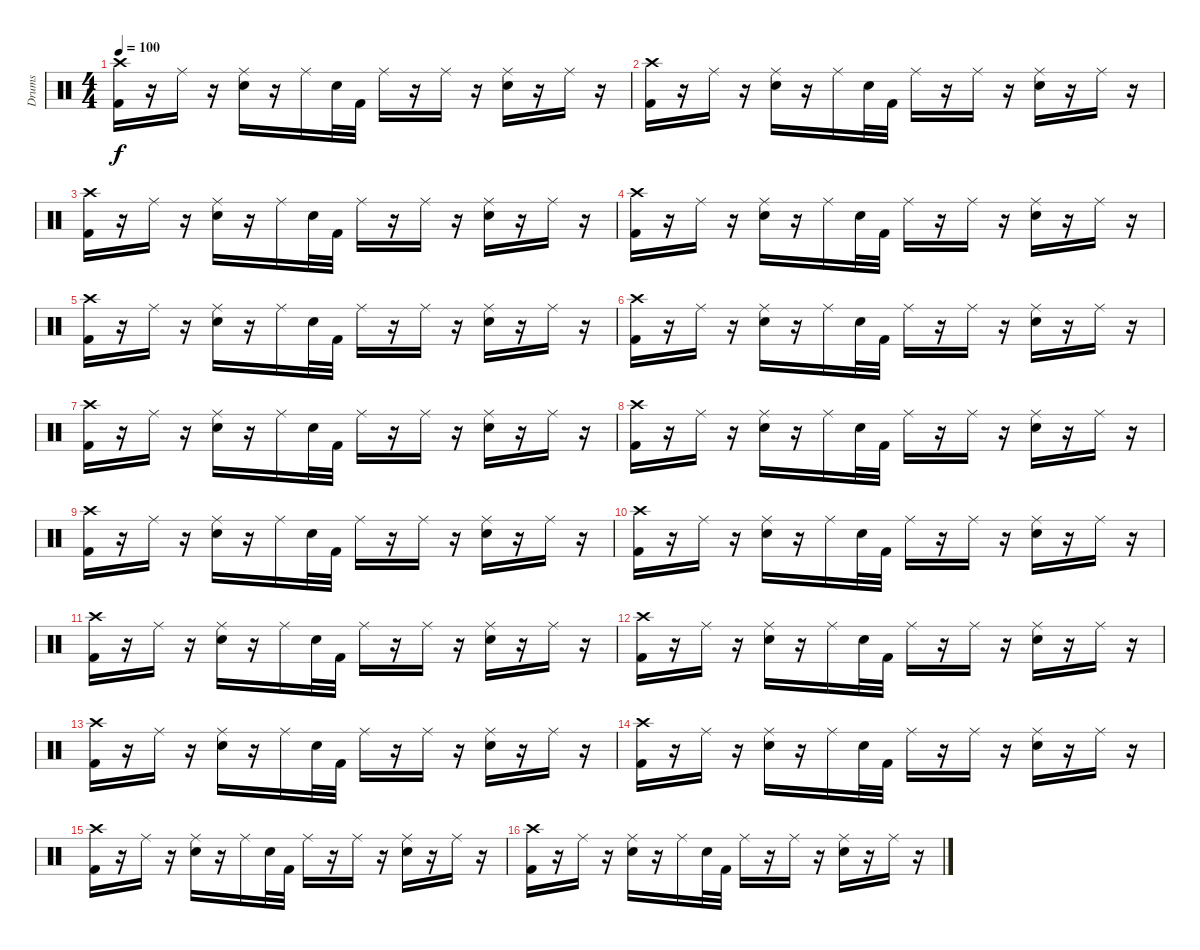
\track ("Drums" "Drums") {instrument percussion}
\staff {score}
\articulation defaults
\ts (4 4)
\tempo 100
\clef neutral
\ks c
("Crash high (hit)" "Kick (hit) 2").16{dy f} r.16 "Ride (middle)".16 r.16 ("Ride (middle)" "Snare (hit) 2").16 r.16 "Ride (middle)".16 "Snare (hit) 2".32 "Kick (hit) 2".32 "Ride (middle)".16 r.16 "Ride (middle)".16 r.16 ("Ride (middle)" "Snare (hit) 2").16 r.16 "Ride (middle)".16 r.16 |
("Crash high (hit)" "Kick (hit) 2").16 r.16 "Ride (middle)".16 r.16 ("Ride (middle)" "Snare (hit) 2").16 r.16 "Ride (middle)".16 "Snare (hit) 2".32 "Kick (hit) 2".32 "Ride (middle)".16 r.16 "Ride (middle)".16 r.16 ("Ride (middle)" "Snare (hit) 2").16 r.16 "Ride (middle)".16 r.16 |
("Crash high (hit)" "Kick (hit) 2").16 r.16 "Ride (middle)".16 r.16 ("Ride (middle)" "Snare (hit) 2").16 r.16 "Ride (middle)".16 "Snare (hit) 2".32 "Kick (hit) 2".32 "Ride (middle)".16 r.16 "Ride (middle)".16 r.16 ("Ride (middle)" "Snare (hit) 2").16 r.16 "Ride (middle)".16 r.16 |
("Crash high (hit)" "Kick (hit) 2").16 r.16 "Ride (middle)".16 r.16 ("Ride (middle)" "Snare (hit) 2").16 r.16 "Ride (middle)".16 "Snare (hit) 2".32 "Kick (hit) 2".32 "Ride (middle)".16 r.16 "Ride (middle)".16 r.16 ("Ride (middle)" "Snare (hit) 2").16 r.16 "Ride (middle)".16 r.16 |
("Crash high (hit)" "Kick (hit) 2").16 r.16 "Ride (middle)".16 r.16 ("Ride (middle)" "Snare (hit) 2").16 r.16 "Ride (middle)".16 "Snare (hit) 2".32 "Kick (hit) 2".32 "Ride (middle)".16 r.16 "Ride (middle)".16 r.16 ("Ride (middle)" "Snare (hit) 2").16 r.16 "Ride (middle)".16 r.16 |
("Crash high (hit)" "Kick (hit) 2").16 r.16 "Ride (middle)".16 r.16 ("Ride (middle)" "Snare (hit) 2").16 r.16 "Ride (middle)".16 "Snare (hit) 2".32 "Kick (hit) 2".32 "Ride (middle)".16 r.16 "Ride (middle)".16 r.16 ("Ride (middle)" "Snare (hit) 2").16 r.16 "Ride (middle)".16 r.16 |
("Crash high (hit)" "Kick (hit) 2").16 r.16 "Ride (middle)".16 r.16 ("Ride (middle)" "Snare (hit) 2").16 r.16 "Ride (middle)".16 "Snare (hit) 2".32 "Kick (hit) 2".32 "Ride (middle)".16 r.16 "Ride (middle)".16 r.16 ("Ride (middle)" "Snare (hit) 2").16 r.16 "Ride (middle)".16 r.16 |
("Crash high (hit)" "Kick (hit) 2").16 r.16 "Ride (middle)".16 r.16 ("Ride (middle)" "Snare (hit) 2").16 r.16 "Ride (middle)".16 "Snare (hit) 2".32 "Kick (hit) 2".32 "Ride (middle)".16 r.16 "Ride (middle)".16 r.16 ("Ride (middle)" "Snare (hit) 2").16 r.16 "Ride (middle)".16 r.16 |
("Crash high (hit)" "Kick (hit) 2").16 r.16 "Ride (middle)".16 r.16 ("Ride (middle)" "Snare (hit) 2").16 r.16 "Ride (middle)".16 "Snare (hit) 2".32 "Kick (hit) 2".32 "Ride (middle)".16 r.16 "Ride (middle)".16 r.16 ("Ride (middle)" "Snare (hit) 2").16 r.16 "Ride (middle)".16 r.16 |
("Crash high (hit)" "Kick (hit) 2").16 r.16 "Ride (middle)".16 r.16 ("Ride (middle)" "Snare (hit) 2").16 r.16 "Ride (middle)".16 "Snare (hit) 2".32 "Kick (hit) 2".32 "Ride (middle)".16 r.16 "Ride (middle)".16 r.16 ("Ride (middle)" "Snare (hit) 2").16 r.16 "Ride (middle)".16 r.16 |
("Crash high (hit)" "Kick (hit) 2").16 r.16 "Ride (middle)".16 r.16 ("Ride (middle)" "Snare (hit) 2").16 r.16 "Ride (middle)".16 "Snare (hit) 2".32 "Kick (hit) 2".32 "Ride (middle)".16 r.16 "Ride (middle)".16 r.16 ("Ride (middle)" "Snare (hit) 2").16 r.16 "Ride (middle)".16 r.16 |
("Crash high (hit)" "Kick (hit) 2").16 r.16 "Ride (middle)".16 r.16 ("Ride (middle)" "Snare (hit) 2").16 r.16 "Ride (middle)".16 "Snare (hit) 2".32 "Kick (hit) 2".32 "Ride (middle)".16 r.16 "Ride (middle)".16 r.16 ("Ride (middle)" "Snare (hit) 2").16 r.16 "Ride (middle)".16 r.16 |
("Crash high (hit)" "Kick (hit) 2").16 r.16 "Ride (middle)".16 r.16 ("Ride (middle)" "Snare (hit) 2").16 r.16 "Ride (middle)".16 "Snare (hit) 2".32 "Kick (hit) 2".32 "Ride (middle)".16 r.16 "Ride (middle)".16 r.16 ("Ride (middle)" "Snare (hit) 2").16 r.16 "Ride (middle)".16 r.16 |
("Crash high (hit)" "Kick (hit) 2").16 r.16 "Ride (middle)".16 r.16 ("Ride (middle)" "Snare (hit) 2").16 r.16 "Ride (middle)".16 "Snare (hit) 2".32 "Kick (hit) 2".32 "Ride (middle)".16 r.16 "Ride (middle)".16 r.16 ("Ride (middle)" "Snare (hit) 2").16 r.16 "Ride (middle)".16 r.16 |
("Crash high (hit)" "Kick (hit) 2").16 r.16 "Ride (middle)".16 r.16 ("Ride (middle)" "Snare (hit) 2").16 r.16 "Ride (middle)".16 "Snare (hit) 2".32 "Kick (hit) 2".32 "Ride (middle)".16 r.16 "Ride (middle)".16 r.16 ("Ride (middle)" "Snare (hit) 2").16 r.16 "Ride (middle)".16 r.16 |
("Crash high (hit)" "Kick (hit) 2").16 r.16 "Ride (middle)".16 r.16 ("Ride (middle)" "Snare (hit) 2").16 r.16 "Ride (middle)".16 "Snare (hit) 2".32 "Kick (hit) 2".32 "Ride (middle)".16 r.16 "Ride (middle)".16 r.16 ("Ride (middle)" "Snare (hit) 2").16 r.16 "Ride (middle)".16 r.16
